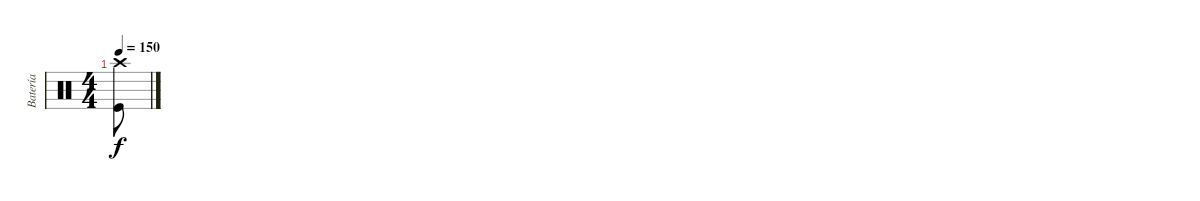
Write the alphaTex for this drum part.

\track ("Batería" "Batería") {instrument percussion}
\staff {score}
\articulation defaults
\ts (4 4)
\tempo 150
\clef neutral
\ks c
("Crash high (hit)" "Kick (hit)").8{dy f}
